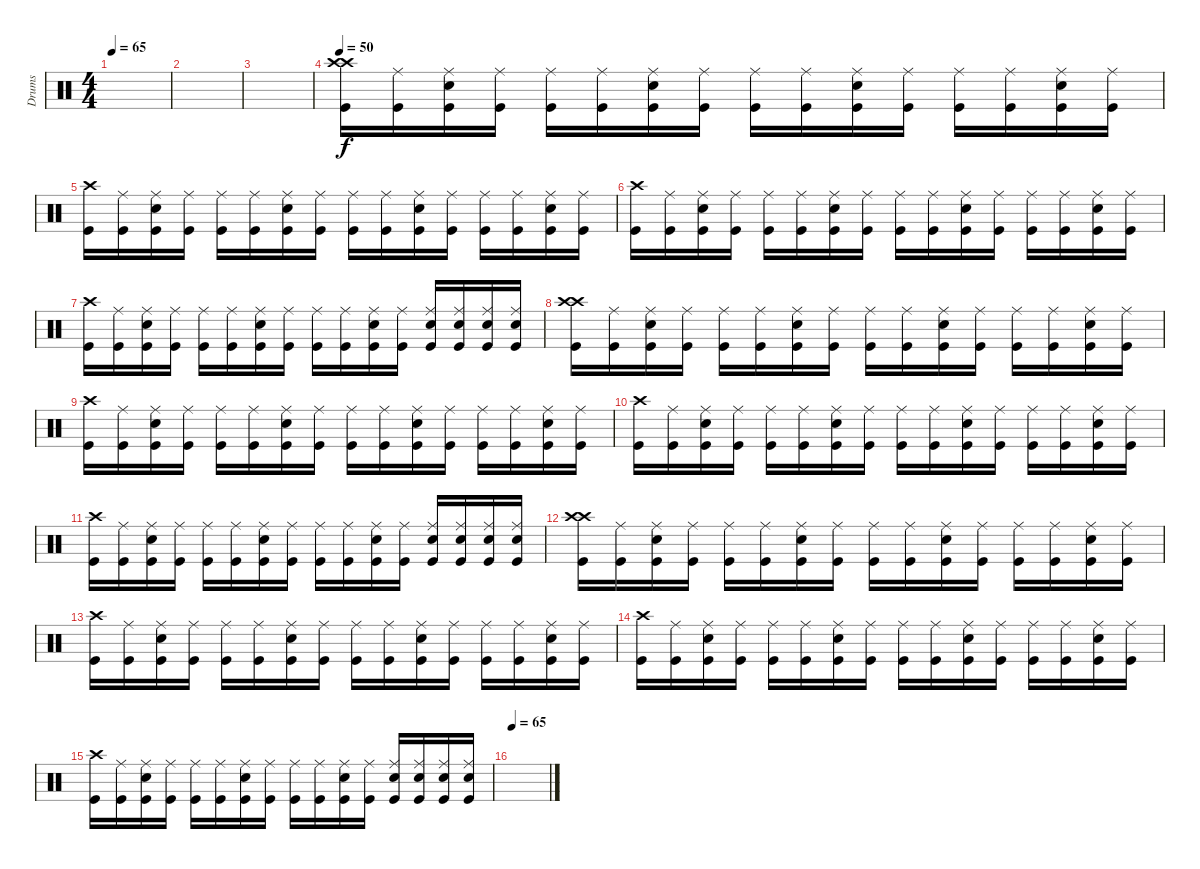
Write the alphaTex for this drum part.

\track ("Drums" "Drums") {instrument percussion}
\staff {score}
\articulation defaults
\ts (4 4)
\tempo 65
\clef neutral
\ks c
|
|
|
\tempo 50
("Crash high (hit)" "Crash high (hit)" "Kick (hit)").16{volume 13} ("Ride (middle)" "Kick (hit)").16 ("Ride (middle)" "Electric Snare (hit)" "Kick (hit)").16 ("Ride (middle)" "Kick (hit)").16 ("Ride (middle)" "Kick (hit)").16 ("Ride (middle)" "Kick (hit)").16 ("Ride (middle)" "Electric Snare (hit)" "Kick (hit)").16 ("Ride (middle)" "Kick (hit)").16 ("Ride (middle)" "Kick (hit)").16 ("Ride (middle)" "Kick (hit)").16 ("Ride (middle)" "Electric Snare (hit)" "Kick (hit)").16 ("Ride (middle)" "Kick (hit)").16 ("Ride (middle)" "Kick (hit)").16 ("Ride (middle)" "Kick (hit)").16 ("Ride (middle)" "Electric Snare (hit)" "Kick (hit)").16 ("Ride (middle)" "Kick (hit)").16 |
("Crash high (hit)" "Kick (hit)").16 ("Ride (middle)" "Kick (hit)").16 ("Ride (middle)" "Electric Snare (hit)" "Kick (hit)").16 ("Ride (middle)" "Kick (hit)").16 ("Ride (middle)" "Kick (hit)").16 ("Ride (middle)" "Kick (hit)").16 ("Ride (middle)" "Electric Snare (hit)" "Kick (hit)").16 ("Ride (middle)" "Kick (hit)").16 ("Ride (middle)" "Kick (hit)").16 ("Ride (middle)" "Kick (hit)").16 ("Ride (middle)" "Electric Snare (hit)" "Kick (hit)").16 ("Ride (middle)" "Kick (hit)").16 ("Ride (middle)" "Kick (hit)").16 ("Ride (middle)" "Kick (hit)").16 ("Ride (middle)" "Electric Snare (hit)" "Kick (hit)").16 ("Ride (middle)" "Kick (hit)").16 |
("Crash high (hit)" "Kick (hit)").16 ("Ride (middle)" "Kick (hit)").16 ("Ride (middle)" "Electric Snare (hit)" "Kick (hit)").16 ("Ride (middle)" "Kick (hit)").16 ("Ride (middle)" "Kick (hit)").16 ("Ride (middle)" "Kick (hit)").16 ("Ride (middle)" "Electric Snare (hit)" "Kick (hit)").16 ("Ride (middle)" "Kick (hit)").16 ("Ride (middle)" "Kick (hit)").16 ("Ride (middle)" "Kick (hit)").16 ("Ride (middle)" "Electric Snare (hit)" "Kick (hit)").16 ("Ride (middle)" "Kick (hit)").16 ("Ride (middle)" "Kick (hit)").16 ("Ride (middle)" "Kick (hit)").16 ("Ride (middle)" "Electric Snare (hit)" "Kick (hit)").16 ("Ride (middle)" "Kick (hit)").16 |
("Crash high (hit)" "Kick (hit)").16 ("Ride (middle)" "Kick (hit)").16 ("Ride (middle)" "Electric Snare (hit)" "Kick (hit)").16 ("Ride (middle)" "Kick (hit)").16 ("Ride (middle)" "Kick (hit)").16 ("Ride (middle)" "Kick (hit)").16 ("Ride (middle)" "Electric Snare (hit)" "Kick (hit)").16 ("Ride (middle)" "Kick (hit)").16 ("Ride (middle)" "Kick (hit)").16 ("Ride (middle)" "Kick (hit)").16 ("Ride (middle)" "Electric Snare (hit)" "Kick (hit)").16 ("Ride (middle)" "Kick (hit)").16 ("Ride (middle)" "Electric Snare (hit)" "Kick (hit)").16 ("Ride (middle)" "Electric Snare (hit)" "Kick (hit)").16 ("Ride (middle)" "Electric Snare (hit)" "Kick (hit)").16 ("Ride (middle)" "Electric Snare (hit)" "Kick (hit)").16 |
("Crash high (hit)" "Crash high (hit)" "Kick (hit)").16{volume 13} ("Ride (middle)" "Kick (hit)").16 ("Ride (middle)" "Electric Snare (hit)" "Kick (hit)").16 ("Ride (middle)" "Kick (hit)").16 ("Ride (middle)" "Kick (hit)").16 ("Ride (middle)" "Kick (hit)").16 ("Ride (middle)" "Electric Snare (hit)" "Kick (hit)").16 ("Ride (middle)" "Kick (hit)").16 ("Ride (middle)" "Kick (hit)").16 ("Ride (middle)" "Kick (hit)").16 ("Ride (middle)" "Electric Snare (hit)" "Kick (hit)").16 ("Ride (middle)" "Kick (hit)").16 ("Ride (middle)" "Kick (hit)").16 ("Ride (middle)" "Kick (hit)").16 ("Ride (middle)" "Electric Snare (hit)" "Kick (hit)").16 ("Ride (middle)" "Kick (hit)").16 |
("Crash high (hit)" "Kick (hit)").16 ("Ride (middle)" "Kick (hit)").16 ("Ride (middle)" "Electric Snare (hit)" "Kick (hit)").16 ("Ride (middle)" "Kick (hit)").16 ("Ride (middle)" "Kick (hit)").16 ("Ride (middle)" "Kick (hit)").16 ("Ride (middle)" "Electric Snare (hit)" "Kick (hit)").16 ("Ride (middle)" "Kick (hit)").16 ("Ride (middle)" "Kick (hit)").16 ("Ride (middle)" "Kick (hit)").16 ("Ride (middle)" "Electric Snare (hit)" "Kick (hit)").16 ("Ride (middle)" "Kick (hit)").16 ("Ride (middle)" "Kick (hit)").16 ("Ride (middle)" "Kick (hit)").16 ("Ride (middle)" "Electric Snare (hit)" "Kick (hit)").16 ("Ride (middle)" "Kick (hit)").16 |
("Crash high (hit)" "Kick (hit)").16 ("Ride (middle)" "Kick (hit)").16 ("Ride (middle)" "Electric Snare (hit)" "Kick (hit)").16 ("Ride (middle)" "Kick (hit)").16 ("Ride (middle)" "Kick (hit)").16 ("Ride (middle)" "Kick (hit)").16 ("Ride (middle)" "Electric Snare (hit)" "Kick (hit)").16 ("Ride (middle)" "Kick (hit)").16 ("Ride (middle)" "Kick (hit)").16 ("Ride (middle)" "Kick (hit)").16 ("Ride (middle)" "Electric Snare (hit)" "Kick (hit)").16 ("Ride (middle)" "Kick (hit)").16 ("Ride (middle)" "Kick (hit)").16 ("Ride (middle)" "Kick (hit)").16 ("Ride (middle)" "Electric Snare (hit)" "Kick (hit)").16 ("Ride (middle)" "Kick (hit)").16 |
("Crash high (hit)" "Kick (hit)").16 ("Ride (middle)" "Kick (hit)").16 ("Ride (middle)" "Electric Snare (hit)" "Kick (hit)").16 ("Ride (middle)" "Kick (hit)").16 ("Ride (middle)" "Kick (hit)").16 ("Ride (middle)" "Kick (hit)").16 ("Ride (middle)" "Electric Snare (hit)" "Kick (hit)").16 ("Ride (middle)" "Kick (hit)").16 ("Ride (middle)" "Kick (hit)").16 ("Ride (middle)" "Kick (hit)").16 ("Ride (middle)" "Electric Snare (hit)" "Kick (hit)").16 ("Ride (middle)" "Kick (hit)").16 ("Ride (middle)" "Electric Snare (hit)" "Kick (hit)").16 ("Ride (middle)" "Electric Snare (hit)" "Kick (hit)").16 ("Ride (middle)" "Electric Snare (hit)" "Kick (hit)").16 ("Ride (middle)" "Electric Snare (hit)" "Kick (hit)").16 |
("Crash high (hit)" "Crash high (hit)" "Kick (hit)").16{volume 13} ("Ride (middle)" "Kick (hit)").16 ("Ride (middle)" "Electric Snare (hit)" "Kick (hit)").16 ("Ride (middle)" "Kick (hit)").16 ("Ride (middle)" "Kick (hit)").16 ("Ride (middle)" "Kick (hit)").16 ("Ride (middle)" "Electric Snare (hit)" "Kick (hit)").16 ("Ride (middle)" "Kick (hit)").16 ("Ride (middle)" "Kick (hit)").16 ("Ride (middle)" "Kick (hit)").16 ("Ride (middle)" "Electric Snare (hit)" "Kick (hit)").16 ("Ride (middle)" "Kick (hit)").16 ("Ride (middle)" "Kick (hit)").16 ("Ride (middle)" "Kick (hit)").16 ("Ride (middle)" "Electric Snare (hit)" "Kick (hit)").16 ("Ride (middle)" "Kick (hit)").16 |
("Crash high (hit)" "Kick (hit)").16 ("Ride (middle)" "Kick (hit)").16 ("Ride (middle)" "Electric Snare (hit)" "Kick (hit)").16 ("Ride (middle)" "Kick (hit)").16 ("Ride (middle)" "Kick (hit)").16 ("Ride (middle)" "Kick (hit)").16 ("Ride (middle)" "Electric Snare (hit)" "Kick (hit)").16 ("Ride (middle)" "Kick (hit)").16 ("Ride (middle)" "Kick (hit)").16 ("Ride (middle)" "Kick (hit)").16 ("Ride (middle)" "Electric Snare (hit)" "Kick (hit)").16 ("Ride (middle)" "Kick (hit)").16 ("Ride (middle)" "Kick (hit)").16 ("Ride (middle)" "Kick (hit)").16 ("Ride (middle)" "Electric Snare (hit)" "Kick (hit)").16 ("Ride (middle)" "Kick (hit)").16 |
("Crash high (hit)" "Kick (hit)").16 ("Ride (middle)" "Kick (hit)").16 ("Ride (middle)" "Electric Snare (hit)" "Kick (hit)").16 ("Ride (middle)" "Kick (hit)").16 ("Ride (middle)" "Kick (hit)").16 ("Ride (middle)" "Kick (hit)").16 ("Ride (middle)" "Electric Snare (hit)" "Kick (hit)").16 ("Ride (middle)" "Kick (hit)").16 ("Ride (middle)" "Kick (hit)").16 ("Ride (middle)" "Kick (hit)").16 ("Ride (middle)" "Electric Snare (hit)" "Kick (hit)").16 ("Ride (middle)" "Kick (hit)").16 ("Ride (middle)" "Kick (hit)").16 ("Ride (middle)" "Kick (hit)").16 ("Ride (middle)" "Electric Snare (hit)" "Kick (hit)").16 ("Ride (middle)" "Kick (hit)").16 |
("Crash high (hit)" "Kick (hit)").16 ("Ride (middle)" "Kick (hit)").16 ("Ride (middle)" "Electric Snare (hit)" "Kick (hit)").16 ("Ride (middle)" "Kick (hit)").16 ("Ride (middle)" "Kick (hit)").16 ("Ride (middle)" "Kick (hit)").16 ("Ride (middle)" "Electric Snare (hit)" "Kick (hit)").16 ("Ride (middle)" "Kick (hit)").16 ("Ride (middle)" "Kick (hit)").16 ("Ride (middle)" "Kick (hit)").16 ("Ride (middle)" "Electric Snare (hit)" "Kick (hit)").16 ("Ride (middle)" "Kick (hit)").16 ("Ride (middle)" "Electric Snare (hit)" "Kick (hit)").16 ("Ride (middle)" "Electric Snare (hit)" "Kick (hit)").16 ("Ride (middle)" "Electric Snare (hit)" "Kick (hit)").16 ("Ride (middle)" "Electric Snare (hit)" "Kick (hit)").16 |
\tempo 65
